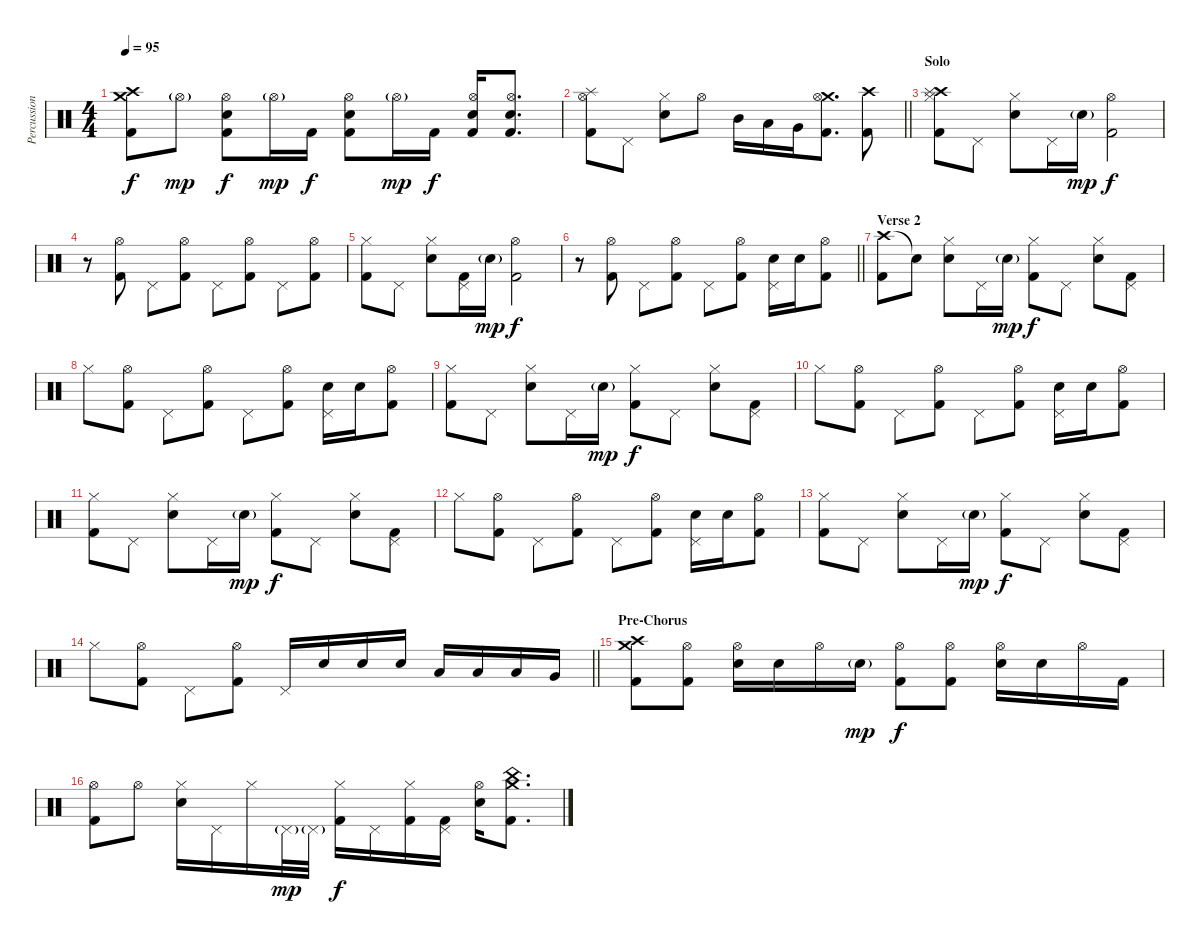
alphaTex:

\track ("Percussion" "Percussion") {instrument percussion}
\staff {score}
\articulation defaults
\ts (4 4)
\tempo 95
\clef neutral
\ks c
("Crash medium (hit)" "Crash high (hit)" "Kick (hit) 2").8{dy f} "Hi-Hat (open)"{g}.8{dy mp} ("Snare (hit) 2" "Hi-Hat (open)" "Kick (hit) 2").8{dy f} "Hi-Hat (open)"{g}.16{dy mp} "Kick (hit) 2".16{dy f} ("Snare (hit) 2" "Hi-Hat (open)" "Kick (hit) 2").8 "Hi-Hat (open)"{g}.16{dy mp} "Kick (hit) 2".16{dy f} ("Snare (hit) 2" "Hi-Hat (open)" "Kick (hit) 2").16 ("Snare (hit) 2" "Hi-Hat (open)" "Kick (hit) 2").8{d} |
\barLineRight lightlight
("Splash (hit)" "Hi-Hat (open)" "Kick (hit) 2").8 "Pedal Hi-Hat (hit)".8 ("Snare (hit) 2" "Hi-Hat (closed)").8 "Hi-Hat (open)".8 "Mid Tom (hit)".16 "Low Tom (hit)".16 "Very Low Tom (hit)".16 ("Crash medium (hit)" "Hi-Hat (open)" "Kick (hit) 2").8{d} ("Crash high (hit)" "Kick (hit) 2").8 |
\section ("" "Solo")
("Crash high (hit)" "Splash (hit)" "Hi-Hat (closed)" "Kick (hit) 2").8 "Pedal Hi-Hat (hit)".8 ("Snare (hit) 2" "Hi-Hat (closed)").8 "Pedal Hi-Hat (hit)".16 "Snare (hit) 2"{g}.16{dy mp} ("Hi-Hat (open)" "Kick (hit) 2").2{dy f} |
r.8 ("Hi-Hat (open)" "Kick (hit) 2").8 "Pedal Hi-Hat (hit)".8 ("Hi-Hat (open)" "Kick (hit) 2").8 "Pedal Hi-Hat (hit)".8 ("Hi-Hat (open)" "Kick (hit) 2").8 "Pedal Hi-Hat (hit)".8 ("Hi-Hat (open)" "Kick (hit) 2").8 |
("Hi-Hat (closed)" "Kick (hit) 2").8 "Pedal Hi-Hat (hit)".8 ("Snare (hit) 2" "Hi-Hat (closed)").8 ("Pedal Hi-Hat (hit)" "Kick (hit) 2").16 "Snare (hit) 2"{g}.16{dy mp} ("Hi-Hat (open)" "Kick (hit) 2").2{dy f} |
\barLineRight lightlight
r.8 ("Hi-Hat (open)" "Kick (hit) 2").8 "Pedal Hi-Hat (hit)".8 ("Hi-Hat (open)" "Kick (hit) 2").8 "Pedal Hi-Hat (hit)".8 ("Hi-Hat (open)" "Kick (hit) 2").8 ("Snare (hit) 2" "Pedal Hi-Hat (hit)").16 "Snare (hit) 2".16 ("Hi-Hat (open)" "Kick (hit) 2").8 |
\section ("" "Verse 2")
("Crash high (hit)" "Kick (hit) 2").8 "Snare (hit)"{t}.8 ("Snare (hit) 2" "Hi-Hat (closed)").8 "Pedal Hi-Hat (hit)".16 "Snare (hit) 2"{g}.16{dy mp} ("Hi-Hat (closed)" "Kick (hit) 2").8{dy f} "Pedal Hi-Hat (hit)".8 ("Snare (hit) 2" "Hi-Hat (closed)").8 ("Pedal Hi-Hat (hit)" "Kick (hit) 2").8 |
"Hi-Hat (closed)".8 ("Hi-Hat (open)" "Kick (hit) 2").8 "Pedal Hi-Hat (hit)".8 ("Hi-Hat (open)" "Kick (hit) 2").8 "Pedal Hi-Hat (hit)".8 ("Hi-Hat (open)" "Kick (hit) 2").8 ("Snare (hit) 2" "Pedal Hi-Hat (hit)").16 "Snare (hit) 2".16 ("Hi-Hat (open)" "Kick (hit) 2").8 |
("Hi-Hat (closed)" "Kick (hit) 2").8 "Pedal Hi-Hat (hit)".8 ("Snare (hit) 2" "Hi-Hat (closed)").8 "Pedal Hi-Hat (hit)".16 "Snare (hit) 2"{g}.16{dy mp} ("Hi-Hat (closed)" "Kick (hit) 2").8{dy f} "Pedal Hi-Hat (hit)".8 ("Snare (hit) 2" "Hi-Hat (closed)").8 ("Pedal Hi-Hat (hit)" "Kick (hit) 2").8 |
"Hi-Hat (closed)".8 ("Hi-Hat (open)" "Kick (hit) 2").8 "Pedal Hi-Hat (hit)".8 ("Hi-Hat (open)" "Kick (hit) 2").8 "Pedal Hi-Hat (hit)".8 ("Hi-Hat (open)" "Kick (hit) 2").8 ("Snare (hit) 2" "Pedal Hi-Hat (hit)").16 "Snare (hit) 2".16 ("Hi-Hat (open)" "Kick (hit) 2").8 |
("Hi-Hat (closed)" "Kick (hit) 2").8 "Pedal Hi-Hat (hit)".8 ("Snare (hit) 2" "Hi-Hat (closed)").8 "Pedal Hi-Hat (hit)".16 "Snare (hit) 2"{g}.16{dy mp} ("Hi-Hat (closed)" "Kick (hit) 2").8{dy f} "Pedal Hi-Hat (hit)".8 ("Snare (hit) 2" "Hi-Hat (closed)").8 ("Pedal Hi-Hat (hit)" "Kick (hit) 2").8 |
"Hi-Hat (closed)".8 ("Hi-Hat (open)" "Kick (hit) 2").8 "Pedal Hi-Hat (hit)".8 ("Hi-Hat (open)" "Kick (hit) 2").8 "Pedal Hi-Hat (hit)".8 ("Hi-Hat (open)" "Kick (hit) 2").8 ("Snare (hit) 2" "Pedal Hi-Hat (hit)").16 "Snare (hit) 2".16 ("Hi-Hat (open)" "Kick (hit) 2").8 |
("Hi-Hat (closed)" "Kick (hit) 2").8 "Pedal Hi-Hat (hit)".8 ("Snare (hit) 2" "Hi-Hat (closed)").8 "Pedal Hi-Hat (hit)".16 "Snare (hit) 2"{g}.16{dy mp} ("Hi-Hat (closed)" "Kick (hit) 2").8{dy f} "Pedal Hi-Hat (hit)".8 ("Snare (hit) 2" "Hi-Hat (closed)").8 ("Pedal Hi-Hat (hit)" "Kick (hit) 2").8 |
\barLineRight lightlight "Hi-Hat (closed)".8
("Hi-Hat (open)" "Kick (hit) 2").8 "Pedal Hi-Hat (hit)".8 ("Hi-Hat (open)" "Kick (hit) 2").8 "Pedal Hi-Hat (hit)".16 "Snare (hit) 2".16 "Snare (hit) 2".16 "Snare (hit) 2".16 "Low Tom (hit)".16 "Low Tom (hit)".16 "Low Tom (hit)".16 "Very Low Tom (hit)".16 |
\section ("" "Pre-Chorus")
("Crash high (hit)" "Crash medium (hit)" "Kick (hit) 2").8 ("Hi-Hat (open)" "Kick (hit) 2").8 ("Snare (hit) 2" "Hi-Hat (open)").16 "Snare (hit) 2".16 "Hi-Hat (open)".16 "Snare (hit) 2"{g}.16{dy mp} ("Hi-Hat (open)" "Kick (hit) 2").8{dy f} ("Hi-Hat (open)" "Kick (hit) 2").8 ("Snare (hit) 2" "Hi-Hat (open)").16 "Snare (hit) 2".16 "Hi-Hat (open)".16 "Kick (hit) 2".16 |
("Hi-Hat (open)" "Kick (hit) 2").8 "Hi-Hat (open)".8 ("Snare (hit) 2" "Hi-Hat (closed)").16 "Pedal Hi-Hat (hit)".16 "Hi-Hat (closed)".16 "Pedal Hi-Hat (hit)"{g}.32{dy mp} "Pedal Hi-Hat (hit)"{g}.32 ("Hi-Hat (closed)" "Kick (hit) 2").16{dy f} "Pedal Hi-Hat (hit)".16 ("Hi-Hat (closed)" "Kick (hit) 2").16 ("Pedal Hi-Hat (hit)" "Kick (hit) 2").16 ("Snare (hit) 2" "Hi-Hat (open)").16 ("Crash medium (hit)" "China (hit)" "Kick (hit) 2").8{d}
